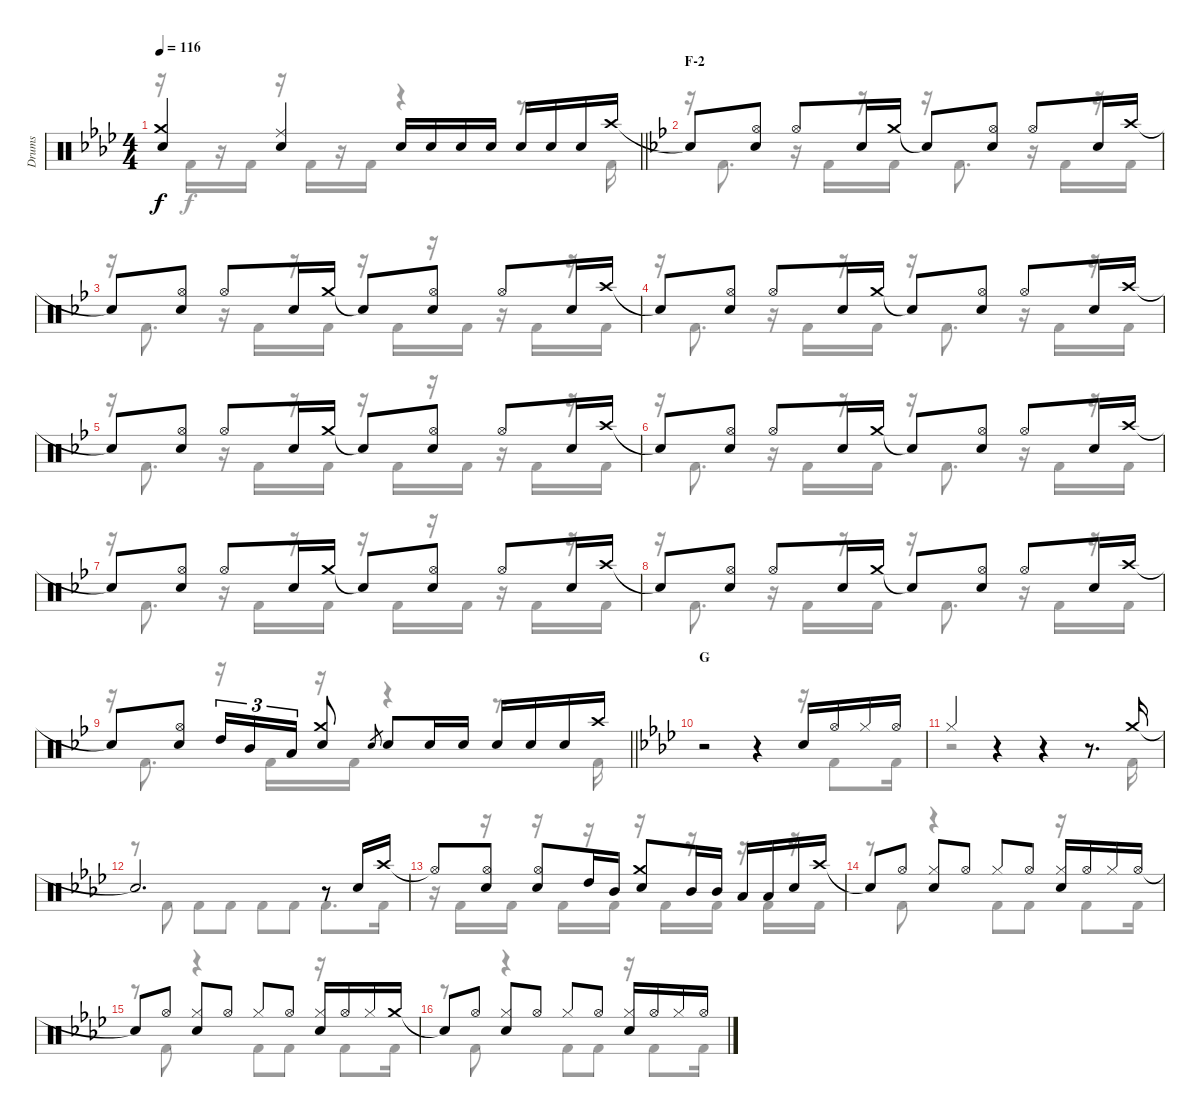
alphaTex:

\track ("Drums" "Drums") {instrument percussion}
\staff {score}
\articulation defaults
\voice
\ts (4 4)
\tempo 116
\clef neutral
\barLineRight lightlight
\ks ab
("Crash medium (hit)" "Snare (hit) 2").4{dy f} ("Ride (middle)" "Snare (hit) 2").4 "Snare (hit) 2".16 "Snare (hit) 2".16 "Snare (hit) 2".16 "Snare (hit) 2".16 "Snare (hit) 2".16 "Snare (hit) 2".16 "Snare (hit) 2".16 "Crash high (hit)".16 |
\section ("" "F-2")
\ks bb "Snare (hit)"{t}.8
("Hi-Hat (open)" "Snare (hit) 2").8 "Hi-Hat (open)".8 "Snare (hit) 2".16 "Crash medium (hit)".16 "Snare (hit)"{t}.8 ("Hi-Hat (open)" "Snare (hit) 2").8 "Hi-Hat (open)".8 "Snare (hit) 2".16 "Crash high (hit)".16 |
"Snare (hit)"{t}.8 ("Hi-Hat (open)" "Snare (hit) 2").8 "Hi-Hat (open)".8 "Snare (hit) 2".16 "Crash medium (hit)".16 "Snare (hit)"{t}.8 ("Hi-Hat (open)" "Snare (hit) 2").8 "Hi-Hat (open)".8 "Snare (hit) 2".16 "Crash high (hit)".16 |
"Snare (hit)"{t}.8 ("Hi-Hat (open)" "Snare (hit) 2").8 "Hi-Hat (open)".8 "Snare (hit) 2".16 "Crash medium (hit)".16 "Snare (hit)"{t}.8 ("Hi-Hat (open)" "Snare (hit) 2").8 "Hi-Hat (open)".8 "Snare (hit) 2".16 "Crash high (hit)".16 |
"Snare (hit)"{t}.8 ("Hi-Hat (open)" "Snare (hit) 2").8 "Hi-Hat (open)".8 "Snare (hit) 2".16 "Crash medium (hit)".16 "Snare (hit)"{t}.8 ("Hi-Hat (open)" "Snare (hit) 2").8 "Hi-Hat (open)".8 "Snare (hit) 2".16 "Crash high (hit)".16 |
"Snare (hit)"{t}.8 ("Hi-Hat (open)" "Snare (hit) 2").8 "Hi-Hat (open)".8 "Snare (hit) 2".16 "Crash medium (hit)".16 "Snare (hit)"{t}.8 ("Hi-Hat (open)" "Snare (hit) 2").8 "Hi-Hat (open)".8 "Snare (hit) 2".16 "Crash high (hit)".16 |
"Snare (hit)"{t}.8 ("Hi-Hat (open)" "Snare (hit) 2").8 "Hi-Hat (open)".8 "Snare (hit) 2".16 "Crash medium (hit)".16 "Snare (hit)"{t}.8 ("Hi-Hat (open)" "Snare (hit) 2").8 "Hi-Hat (open)".8 "Snare (hit) 2".16 "Crash high (hit)".16 |
"Snare (hit)"{t}.8 ("Hi-Hat (open)" "Snare (hit) 2").8 "Hi-Hat (open)".8 "Snare (hit) 2".16 "Crash medium (hit)".16 "Snare (hit)"{t}.8 ("Hi-Hat (open)" "Snare (hit) 2").8 "Hi-Hat (open)".8 "Snare (hit) 2".16 "Crash high (hit)".16 |
\barLineRight lightlight "Snare (hit)"{t}.8
("Hi-Hat (open)" "Snare (hit) 2").8 "High Tom (hit)".16{tu (3 2)} "Mid Tom (hit)".16{tu (3 2)} "Low Tom (hit)".16{tu (3 2)} ("Crash medium (hit)" "Snare (hit) 2").8 "Snare (hit) 2".8{gr} "Snare (hit) 2".8 "Snare (hit) 2".16 "Snare (hit) 2".16 "Snare (hit) 2".16 "Snare (hit) 2".16 "Snare (hit) 2".16 "Crash high (hit)".16 |
\section ("" "G")
\ks ab
r.2 r.4 "Snare (hit) 2".16 "Hi-Hat (open)".16 "Hi-Hat (closed)".16 "Hi-Hat (open)".16 |
"Hi-Hat (closed)".4 r.4 r.4 r.8{d} "Crash medium (hit)".16 |
"Snare (hit)"{t}.2{d} r.8 "Snare (hit) 2".16 "Crash high (hit)".16 |
"Hi-Hat (open)"{t}.8 ("Hi-Hat (open)" "Snare (hit) 2").8 ("Hi-Hat (open)" "Snare (hit) 2").8 "High Tom (hit)".16 "Mid Tom (hit)".16 ("Crash medium (hit)" "Snare (hit) 2").8 "Mid Tom (hit)".16 "Mid Tom (hit)".16 "Low Tom (hit)".16 "Low Tom (hit)".16 "Snare (hit) 2".16 "Crash high (hit)".16 |
"Snare (hit)"{t}.8 "Hi-Hat (open)".8 ("Hi-Hat (closed)" "Snare (hit) 2").8 "Hi-Hat (open)".8 "Hi-Hat (closed)".8 "Hi-Hat (open)".8 ("Hi-Hat (closed)" "Snare (hit) 2").16 "Hi-Hat (open)".16 "Hi-Hat (closed)".16 "Hi-Hat (open)".16 |
"Snare (hit)"{t}.8 "Hi-Hat (open)".8 ("Hi-Hat (closed)" "Snare (hit) 2").8 "Hi-Hat (open)".8 "Hi-Hat (closed)".8 "Hi-Hat (open)".8 ("Hi-Hat (closed)" "Snare (hit) 2").16 "Hi-Hat (open)".16 "Hi-Hat (closed)".16 "Crash medium (hit)".16 |
"Snare (hit)"{t}.8 "Hi-Hat (open)".8 ("Hi-Hat (closed)" "Snare (hit) 2").8 "Hi-Hat (open)".8 "Hi-Hat (closed)".8 "Hi-Hat (open)".8 ("Hi-Hat (closed)" "Snare (hit) 2").16 "Hi-Hat (open)".16 "Hi-Hat (closed)".16 "Hi-Hat (open)".16
\voice
\clef neutral
\ottava regular
\simile none
\barLineRight lightlight
\ks ab
r.16{dy f} "Kick (hit) 2".16 r.16 "Kick (hit) 2".16 r.16 "Kick (hit) 2".16 r.16 "Kick (hit) 2".16 r.4 r.8{d} "Kick (hit) 2".16 |
\ks bb
r.16 "Kick (hit) 2".8{d} r.16 "Kick (hit) 2".16 r.16 "Kick (hit) 2".16 r.16 "Kick (hit) 2".8{d} r.16 "Kick (hit) 2".16 r.16 "Kick (hit) 2".16 |
r.16 "Kick (hit) 2".8{d} r.16 "Kick (hit) 2".16 r.16 "Kick (hit) 2".16 r.16 "Kick (hit) 2".16 r.16 "Kick (hit) 2".16 r.16 "Kick (hit) 2".16 r.16 "Kick (hit) 2".16 |
r.16 "Kick (hit) 2".8{d} r.16 "Kick (hit) 2".16 r.16 "Kick (hit) 2".16 r.16 "Kick (hit) 2".8{d} r.16 "Kick (hit) 2".16 r.16 "Kick (hit) 2".16 |
r.16 "Kick (hit) 2".8{d} r.16 "Kick (hit) 2".16 r.16 "Kick (hit) 2".16 r.16 "Kick (hit) 2".16 r.16 "Kick (hit) 2".16 r.16 "Kick (hit) 2".16 r.16 "Kick (hit) 2".16 |
r.16 "Kick (hit) 2".8{d} r.16 "Kick (hit) 2".16 r.16 "Kick (hit) 2".16 r.16 "Kick (hit) 2".8{d} r.16 "Kick (hit) 2".16 r.16 "Kick (hit) 2".16 |
r.16 "Kick (hit) 2".8{d} r.16 "Kick (hit) 2".16 r.16 "Kick (hit) 2".16 r.16 "Kick (hit) 2".16 r.16 "Kick (hit) 2".16 r.16 "Kick (hit) 2".16 r.16 "Kick (hit) 2".16 |
r.16 "Kick (hit) 2".8{d} r.16 "Kick (hit) 2".16 r.16 "Kick (hit) 2".16 r.16 "Kick (hit) 2".8{d} r.16 "Kick (hit) 2".16 r.16 "Kick (hit) 2".16 |
\barLineRight lightlight
r.16 "Kick (hit) 2".8{d} r.16 "Kick (hit) 2".16 r.16 "Kick (hit) 2".16 r.4 r.8{d} "Kick (hit) 2".16 |
\ks ab
r.2 r.4 r.16 "Kick (hit) 2".8 "Kick (hit) 2".16 |
r.2 r.4 r.8{d} "Kick (hit) 2".16 |
r.8 "Kick (hit) 2".8 "Kick (hit) 2".8 "Kick (hit) 2".8 "Kick (hit) 2".8 "Kick (hit) 2".8 "Kick (hit) 2".8{d} "Kick (hit) 2".16 |
r.16 "Kick (hit) 2".16 r.16 "Kick (hit) 2".16 r.16 "Kick (hit) 2".16 r.16 "Kick (hit) 2".16 r.16 "Kick (hit) 2".16 r.16 "Kick (hit) 2".16 r.16 "Kick (hit) 2".16 r.16 "Kick (hit) 2".16 |
r.8 "Kick (hit) 2".8 r.4 "Kick (hit) 2".8 "Kick (hit) 2".8 r.16 "Kick (hit) 2".8 "Kick (hit) 2".16 |
r.8 "Kick (hit) 2".8 r.4 "Kick (hit) 2".8 "Kick (hit) 2".8 r.16 "Kick (hit) 2".8 "Kick (hit) 2".16 |
r.8 "Kick (hit) 2".8 r.4 "Kick (hit) 2".8 "Kick (hit) 2".8 r.16 "Kick (hit) 2".8 "Kick (hit) 2".16
